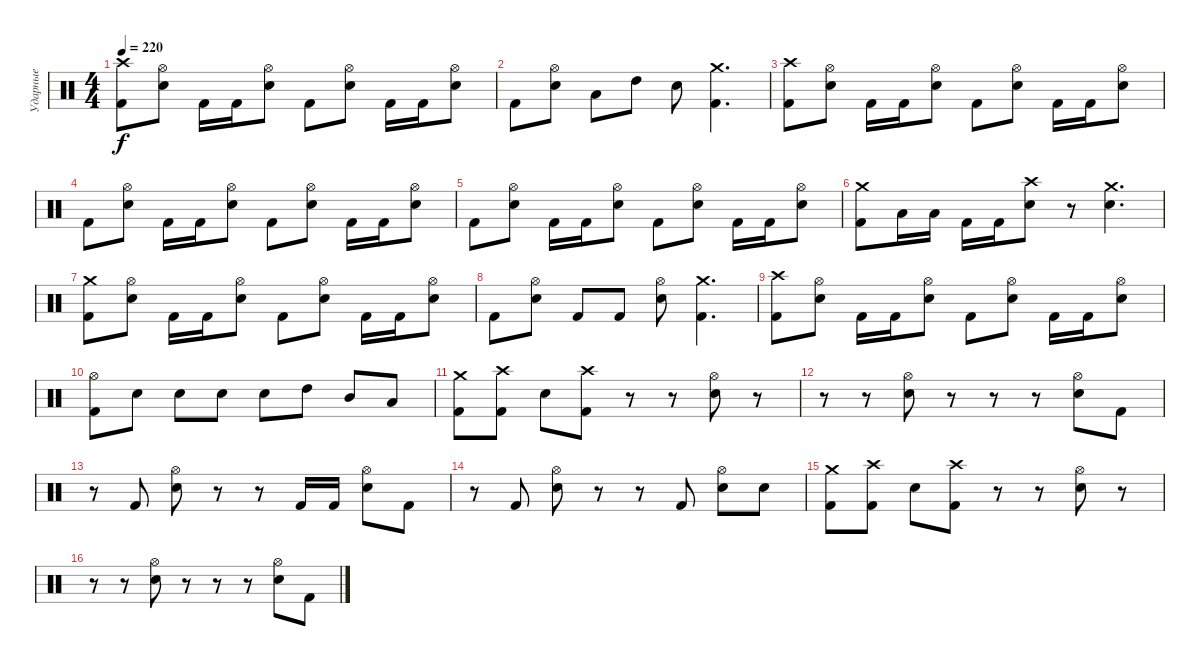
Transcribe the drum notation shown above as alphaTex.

\track ("Ударные" "Ударные") {instrument percussion}
\staff {score}
\articulation defaults
\ts (4 4)
\tempo 220
\clef neutral
\ks c
("Crash high (hit)" "Kick (hit) 2").8{dy f} ("Hi-Hat (open)" "Electric Snare (hit)").8 "Kick (hit) 2".16 "Kick (hit) 2".16 ("Hi-Hat (open)" "Electric Snare (hit)").8 "Kick (hit) 2".8 ("Hi-Hat (open)" "Electric Snare (hit)").8 "Kick (hit) 2".16 "Kick (hit) 2".16 ("Hi-Hat (open)" "Electric Snare (hit)").8 |
"Kick (hit) 2".8 ("Hi-Hat (open)" "Electric Snare (hit)").8 "Low Floor Tom (hit)".8 "High Tom (hit)".8 "Electric Snare (hit)".8 ("Crash medium (hit)" "Kick (hit) 2").4{d} |
("Crash high (hit)" "Kick (hit) 2").8 ("Hi-Hat (open)" "Electric Snare (hit)").8 "Kick (hit) 2".16 "Kick (hit) 2".16 ("Hi-Hat (open)" "Electric Snare (hit)").8 "Kick (hit) 2".8 ("Hi-Hat (open)" "Electric Snare (hit)").8 "Kick (hit) 2".16 "Kick (hit) 2".16 ("Hi-Hat (open)" "Electric Snare (hit)").8 |
"Kick (hit) 2".8 ("Hi-Hat (open)" "Electric Snare (hit)").8 "Kick (hit) 2".16 "Kick (hit) 2".16 ("Hi-Hat (open)" "Electric Snare (hit)").8 "Kick (hit) 2".8 ("Hi-Hat (open)" "Electric Snare (hit)").8 "Kick (hit) 2".16 "Kick (hit) 2".16 ("Hi-Hat (open)" "Electric Snare (hit)").8 |
"Kick (hit) 2".8 ("Hi-Hat (open)" "Electric Snare (hit)").8 "Kick (hit) 2".16 "Kick (hit) 2".16 ("Hi-Hat (open)" "Electric Snare (hit)").8 "Kick (hit) 2".8 ("Hi-Hat (open)" "Electric Snare (hit)").8 "Kick (hit) 2".16 "Kick (hit) 2".16 ("Hi-Hat (open)" "Electric Snare (hit)").8 |
("Crash medium (hit)" "Kick (hit) 2").8 "Low Floor Tom (hit)".16 "Low Floor Tom (hit)".16 "Kick (hit) 2".16 "Kick (hit) 2".16 ("Crash high (hit)" "Electric Snare (hit)").8 r.8 ("Crash medium (hit)" "Electric Snare (hit)").4{d} |
("Crash medium (hit)" "Kick (hit) 2").8 ("Hi-Hat (open)" "Electric Snare (hit)").8 "Kick (hit) 2".16 "Kick (hit) 2".16 ("Hi-Hat (open)" "Electric Snare (hit)").8 "Kick (hit) 2".8 ("Hi-Hat (open)" "Electric Snare (hit)").8 "Kick (hit) 2".16 "Kick (hit) 2".16 ("Hi-Hat (open)" "Electric Snare (hit)").8 |
"Kick (hit) 2".8 ("Hi-Hat (open)" "Electric Snare (hit)").8 "Kick (hit) 2".8 "Kick (hit) 2".8 ("Hi-Hat (open)" "Electric Snare (hit)").8 ("Crash medium (hit)" "Kick (hit) 2").4{d} |
("Crash high (hit)" "Kick (hit) 2").8 ("Hi-Hat (open)" "Electric Snare (hit)").8 "Kick (hit) 2".16 "Kick (hit) 2".16 ("Hi-Hat (open)" "Electric Snare (hit)").8 "Kick (hit) 2".8 ("Hi-Hat (open)" "Electric Snare (hit)").8 "Kick (hit) 2".16 "Kick (hit) 2".16 ("Hi-Hat (open)" "Electric Snare (hit)").8 |
("Hi-Hat (open)" "Kick (hit) 2").8 "Electric Snare (hit)".8 "Electric Snare (hit)".8 "Electric Snare (hit)".8 "Electric Snare (hit)".8 "High Tom (hit)".8 "Mid Tom (hit)".8 "Low Floor Tom (hit)".8 |
("Crash medium (hit)" "Kick (hit) 2").8 ("Crash high (hit)" "Kick (hit) 2").8 "Electric Snare (hit)".8 ("Crash high (hit)" "Kick (hit) 2").8 r.8 r.8 ("Hi-Hat (open)" "Electric Snare (hit)").8 r.8 |
r.8 r.8 ("Hi-Hat (open)" "Electric Snare (hit)").8 r.8 r.8 r.8 ("Hi-Hat (open)" "Electric Snare (hit)").8 "Kick (hit) 2".8 |
r.8 "Kick (hit) 2".8 ("Hi-Hat (open)" "Electric Snare (hit)").8 r.8 r.8 "Kick (hit) 2".16 "Kick (hit) 2".16 ("Hi-Hat (open)" "Electric Snare (hit)").8 "Kick (hit) 2".8 |
r.8 "Kick (hit) 2".8 ("Hi-Hat (open)" "Electric Snare (hit)").8 r.8 r.8 "Kick (hit) 2".8 ("Hi-Hat (open)" "Electric Snare (hit)").8 "Electric Snare (hit)".8 |
("Crash medium (hit)" "Kick (hit) 2").8 ("Crash high (hit)" "Kick (hit) 2").8 "Electric Snare (hit)".8 ("Crash high (hit)" "Kick (hit) 2").8 r.8 r.8 ("Hi-Hat (open)" "Electric Snare (hit)").8 r.8 |
r.8 r.8 ("Hi-Hat (open)" "Electric Snare (hit)").8 r.8 r.8 r.8 ("Hi-Hat (open)" "Electric Snare (hit)").8 "Kick (hit) 2".8
